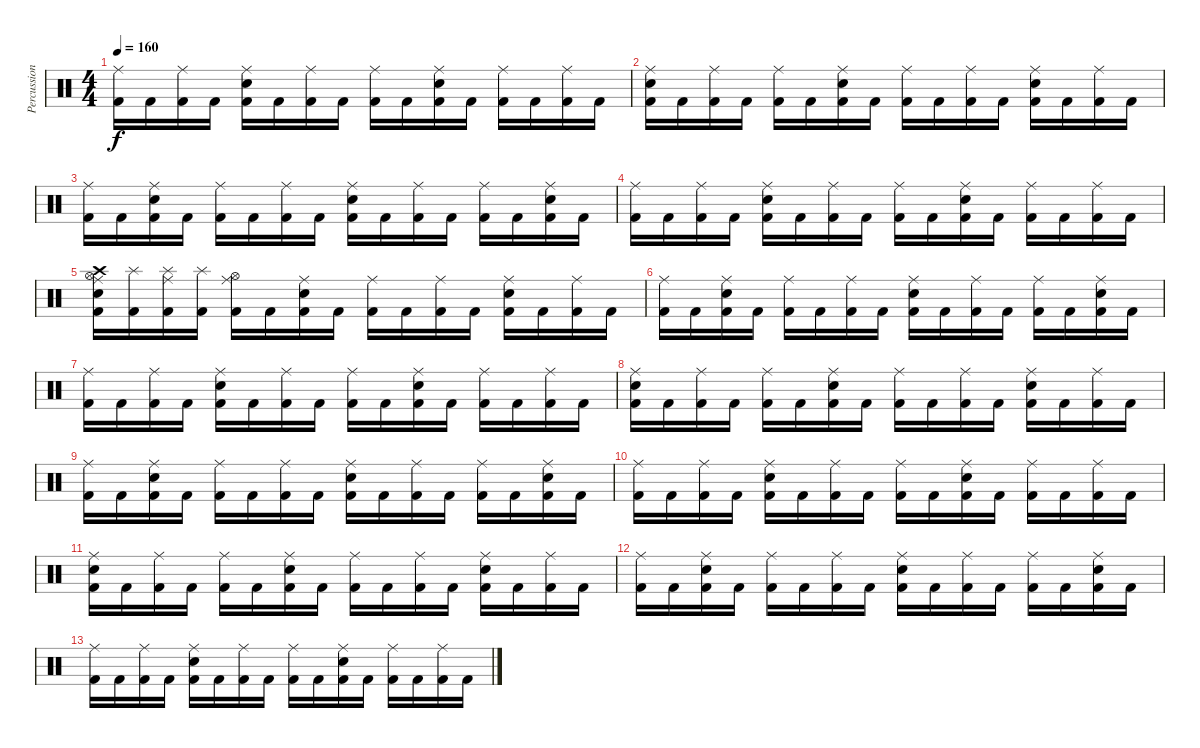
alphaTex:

\track ("Percussions" "Percussion") {instrument percussion}
\staff {score}
\articulation defaults
\ts (4 4)
\tempo 160
\clef neutral
\ks c
("Kick (hit) 2" "Ride (middle)").16{dy f} "Kick (hit) 2".16 ("Kick (hit) 2" "Ride (middle)").16 "Kick (hit) 2".16 ("Kick (hit) 2" "Electric Snare (hit)" "Ride (middle)").16 "Kick (hit) 2".16 ("Kick (hit) 2" "Ride (middle)").16 "Kick (hit) 2".16 ("Kick (hit) 2" "Ride (middle)").16 "Kick (hit) 2".16 ("Kick (hit) 2" "Electric Snare (hit)" "Ride (middle)").16 "Kick (hit) 2".16 ("Kick (hit) 2" "Ride (middle)").16 "Kick (hit) 2".16 ("Kick (hit) 2" "Ride (middle)").16 "Kick (hit) 2".16 |
("Kick (hit) 2" "Electric Snare (hit)" "Ride (middle)").16 "Kick (hit) 2".16 ("Kick (hit) 2" "Ride (middle)").16 "Kick (hit) 2".16 ("Kick (hit) 2" "Ride (middle)").16 "Kick (hit) 2".16 ("Kick (hit) 2" "Electric Snare (hit)" "Ride (middle)").16 "Kick (hit) 2".16 ("Kick (hit) 2" "Ride (middle)").16 "Kick (hit) 2".16 ("Kick (hit) 2" "Ride (middle)").16 "Kick (hit) 2".16 ("Kick (hit) 2" "Electric Snare (hit)" "Ride (middle)").16 "Kick (hit) 2".16 ("Kick (hit) 2" "Ride (middle)").16 "Kick (hit) 2".16 |
("Kick (hit) 2" "Ride (middle)").16 "Kick (hit) 2".16 ("Kick (hit) 2" "Electric Snare (hit)" "Ride (middle)").16 "Kick (hit) 2".16 ("Kick (hit) 2" "Ride (middle)").16 "Kick (hit) 2".16 ("Kick (hit) 2" "Ride (middle)").16 "Kick (hit) 2".16 ("Kick (hit) 2" "Electric Snare (hit)" "Ride (middle)").16 "Kick (hit) 2".16 ("Kick (hit) 2" "Ride (middle)").16 "Kick (hit) 2".16 ("Kick (hit) 2" "Ride (middle)").16 "Kick (hit) 2".16 ("Kick (hit) 2" "Electric Snare (hit)" "Ride (middle)").16 "Kick (hit) 2".16 |
("Kick (hit) 2" "Ride (middle)").16 "Kick (hit) 2".16 ("Kick (hit) 2" "Ride (middle)").16 "Kick (hit) 2".16 ("Kick (hit) 2" "Electric Snare (hit)" "Ride (middle)").16 "Kick (hit) 2".16 ("Kick (hit) 2" "Ride (middle)").16 "Kick (hit) 2".16 ("Kick (hit) 2" "Ride (middle)").16 "Kick (hit) 2".16 ("Kick (hit) 2" "Electric Snare (hit)" "Ride (middle)").16 "Kick (hit) 2".16 ("Kick (hit) 2" "Ride (middle)").16 "Kick (hit) 2".16 ("Kick (hit) 2" "Ride (middle)").16 "Kick (hit) 2".16 |
("Kick (hit) 2" "Hi-Hat (open)" "Electric Snare (hit)" "Ride (middle)" "Crash high (hit)").16 ("Kick (hit) 2" "Splash (hit)").16 ("Kick (hit) 2" "Splash (hit)" "Ride (middle)").16 ("Kick (hit) 2" "Splash (hit)").16 ("Kick (hit) 2" "Hi-Hat (open)" "Ride (middle)").16 "Kick (hit) 2".16 ("Kick (hit) 2" "Electric Snare (hit)" "Ride (middle)").16 "Kick (hit) 2".16 ("Kick (hit) 2" "Ride (middle)").16 "Kick (hit) 2".16 ("Kick (hit) 2" "Ride (middle)").16 "Kick (hit) 2".16 ("Kick (hit) 2" "Electric Snare (hit)" "Ride (middle)").16 "Kick (hit) 2".16 ("Kick (hit) 2" "Ride (middle)").16 "Kick (hit) 2".16 |
("Kick (hit) 2" "Ride (middle)").16 "Kick (hit) 2".16 ("Kick (hit) 2" "Electric Snare (hit)" "Ride (middle)").16 "Kick (hit) 2".16 ("Kick (hit) 2" "Ride (middle)").16 "Kick (hit) 2".16 ("Kick (hit) 2" "Ride (middle)").16 "Kick (hit) 2".16 ("Kick (hit) 2" "Electric Snare (hit)" "Ride (middle)").16 "Kick (hit) 2".16 ("Kick (hit) 2" "Ride (middle)").16 "Kick (hit) 2".16 ("Kick (hit) 2" "Ride (middle)").16 "Kick (hit) 2".16 ("Kick (hit) 2" "Electric Snare (hit)" "Ride (middle)").16 "Kick (hit) 2".16 |
("Kick (hit) 2" "Ride (middle)").16 "Kick (hit) 2".16 ("Kick (hit) 2" "Ride (middle)").16 "Kick (hit) 2".16 ("Kick (hit) 2" "Electric Snare (hit)" "Ride (middle)").16 "Kick (hit) 2".16 ("Kick (hit) 2" "Ride (middle)").16 "Kick (hit) 2".16 ("Kick (hit) 2" "Ride (middle)").16 "Kick (hit) 2".16 ("Kick (hit) 2" "Electric Snare (hit)" "Ride (middle)").16 "Kick (hit) 2".16 ("Kick (hit) 2" "Ride (middle)").16 "Kick (hit) 2".16 ("Kick (hit) 2" "Ride (middle)").16 "Kick (hit) 2".16 |
("Kick (hit) 2" "Electric Snare (hit)" "Ride (middle)").16 "Kick (hit) 2".16 ("Kick (hit) 2" "Ride (middle)").16 "Kick (hit) 2".16 ("Kick (hit) 2" "Ride (middle)").16 "Kick (hit) 2".16 ("Kick (hit) 2" "Electric Snare (hit)" "Ride (middle)").16 "Kick (hit) 2".16 ("Kick (hit) 2" "Ride (middle)").16 "Kick (hit) 2".16 ("Kick (hit) 2" "Ride (middle)").16 "Kick (hit) 2".16 ("Kick (hit) 2" "Electric Snare (hit)" "Ride (middle)").16 "Kick (hit) 2".16 ("Kick (hit) 2" "Ride (middle)").16 "Kick (hit) 2".16 |
("Kick (hit) 2" "Ride (middle)").16 "Kick (hit) 2".16 ("Kick (hit) 2" "Electric Snare (hit)" "Ride (middle)").16 "Kick (hit) 2".16 ("Kick (hit) 2" "Ride (middle)").16 "Kick (hit) 2".16 ("Kick (hit) 2" "Ride (middle)").16 "Kick (hit) 2".16 ("Kick (hit) 2" "Electric Snare (hit)" "Ride (middle)").16 "Kick (hit) 2".16 ("Kick (hit) 2" "Ride (middle)").16 "Kick (hit) 2".16 ("Kick (hit) 2" "Ride (middle)").16 "Kick (hit) 2".16 ("Kick (hit) 2" "Electric Snare (hit)" "Ride (middle)").16 "Kick (hit) 2".16 |
("Kick (hit) 2" "Ride (middle)").16 "Kick (hit) 2".16 ("Kick (hit) 2" "Ride (middle)").16 "Kick (hit) 2".16 ("Kick (hit) 2" "Electric Snare (hit)" "Ride (middle)").16 "Kick (hit) 2".16 ("Kick (hit) 2" "Ride (middle)").16 "Kick (hit) 2".16 ("Kick (hit) 2" "Ride (middle)").16 "Kick (hit) 2".16 ("Kick (hit) 2" "Electric Snare (hit)" "Ride (middle)").16 "Kick (hit) 2".16 ("Kick (hit) 2" "Ride (middle)").16 "Kick (hit) 2".16 ("Kick (hit) 2" "Ride (middle)").16 "Kick (hit) 2".16 |
("Kick (hit) 2" "Electric Snare (hit)" "Ride (middle)").16 "Kick (hit) 2".16 ("Kick (hit) 2" "Ride (middle)").16 "Kick (hit) 2".16 ("Kick (hit) 2" "Ride (middle)").16 "Kick (hit) 2".16 ("Kick (hit) 2" "Electric Snare (hit)" "Ride (middle)").16 "Kick (hit) 2".16 ("Kick (hit) 2" "Ride (middle)").16 "Kick (hit) 2".16 ("Kick (hit) 2" "Ride (middle)").16 "Kick (hit) 2".16 ("Kick (hit) 2" "Electric Snare (hit)" "Ride (middle)").16 "Kick (hit) 2".16 ("Kick (hit) 2" "Ride (middle)").16 "Kick (hit) 2".16 |
("Kick (hit) 2" "Ride (middle)").16 "Kick (hit) 2".16 ("Kick (hit) 2" "Electric Snare (hit)" "Ride (middle)").16 "Kick (hit) 2".16 ("Kick (hit) 2" "Ride (middle)").16 "Kick (hit) 2".16 ("Kick (hit) 2" "Ride (middle)").16 "Kick (hit) 2".16 ("Kick (hit) 2" "Electric Snare (hit)" "Ride (middle)").16 "Kick (hit) 2".16 ("Kick (hit) 2" "Ride (middle)").16 "Kick (hit) 2".16 ("Kick (hit) 2" "Ride (middle)").16 "Kick (hit) 2".16 ("Kick (hit) 2" "Electric Snare (hit)" "Ride (middle)").16 "Kick (hit) 2".16 |
("Kick (hit) 2" "Ride (middle)").16 "Kick (hit) 2".16 ("Kick (hit) 2" "Ride (middle)").16 "Kick (hit) 2".16 ("Kick (hit) 2" "Electric Snare (hit)" "Ride (middle)").16 "Kick (hit) 2".16 ("Kick (hit) 2" "Ride (middle)").16 "Kick (hit) 2".16 ("Kick (hit) 2" "Ride (middle)").16 "Kick (hit) 2".16 ("Kick (hit) 2" "Electric Snare (hit)" "Ride (middle)").16 "Kick (hit) 2".16 ("Kick (hit) 2" "Ride (middle)").16 "Kick (hit) 2".16 ("Kick (hit) 2" "Ride (middle)").16 "Kick (hit) 2".16
